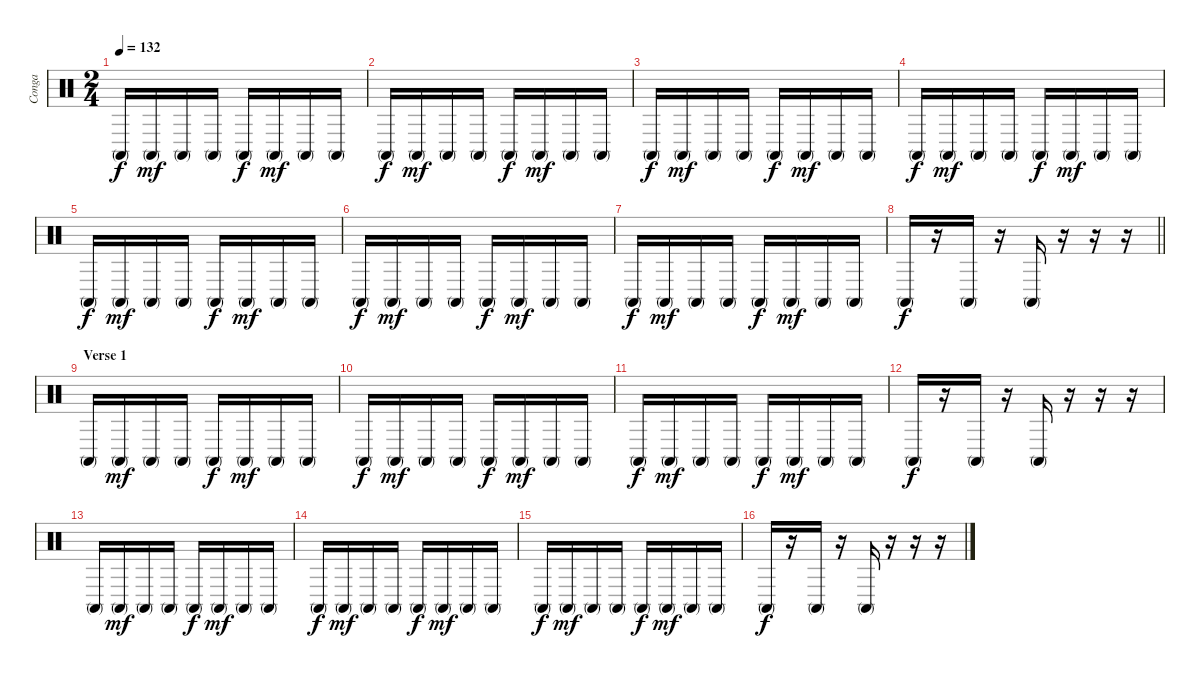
\track ("Conga" "Conga") {instrument percussion}
\staff {score}
\articulation defaults
\ts (2 4)
\tempo 132
\clef neutral
\ks c "Conga high (mute)".16{dy f} "Conga high (mute)".16{dy mf} "Conga high (mute)".16 "Conga high (mute)".16 "Conga high (mute)".16{dy f} "Conga high (mute)".16{dy mf} "Conga high (mute)".16 "Conga high (mute)".16
|
"Conga high (mute)".16{dy f} "Conga high (mute)".16{dy mf} "Conga high (mute)".16 "Conga high (mute)".16 "Conga high (mute)".16{dy f} "Conga high (mute)".16{dy mf} "Conga high (mute)".16 "Conga high (mute)".16 |
"Conga high (mute)".16{dy f} "Conga high (mute)".16{dy mf} "Conga high (mute)".16 "Conga high (mute)".16 "Conga high (mute)".16{dy f} "Conga high (mute)".16{dy mf} "Conga high (mute)".16 "Conga high (mute)".16 |
"Conga high (mute)".16{dy f} "Conga high (mute)".16{dy mf} "Conga high (mute)".16 "Conga high (mute)".16 "Conga high (mute)".16{dy f} "Conga high (mute)".16{dy mf} "Conga high (mute)".16 "Conga high (mute)".16 |
"Conga high (mute)".16{dy f} "Conga high (mute)".16{dy mf} "Conga high (mute)".16 "Conga high (mute)".16 "Conga high (mute)".16{dy f} "Conga high (mute)".16{dy mf} "Conga high (mute)".16 "Conga high (mute)".16 |
"Conga high (mute)".16{dy f} "Conga high (mute)".16{dy mf} "Conga high (mute)".16 "Conga high (mute)".16 "Conga high (mute)".16{dy f} "Conga high (mute)".16{dy mf} "Conga high (mute)".16 "Conga high (mute)".16 |
"Conga high (mute)".16{dy f} "Conga high (mute)".16{dy mf} "Conga high (mute)".16 "Conga high (mute)".16 "Conga high (mute)".16{dy f} "Conga high (mute)".16{dy mf} "Conga high (mute)".16 "Conga high (mute)".16 |
\barLineRight lightlight "Conga high (mute)".16{dy f}
r.16 "Conga high (mute)".16 r.16 "Conga high (mute)".16 r.16 r.16 r.16 |
\section ("" "Verse 1")
"Conga high (mute)".16 "Conga high (mute)".16{dy mf} "Conga high (mute)".16 "Conga high (mute)".16 "Conga high (mute)".16{dy f} "Conga high (mute)".16{dy mf} "Conga high (mute)".16 "Conga high (mute)".16 |
"Conga high (mute)".16{dy f} "Conga high (mute)".16{dy mf} "Conga high (mute)".16 "Conga high (mute)".16 "Conga high (mute)".16{dy f} "Conga high (mute)".16{dy mf} "Conga high (mute)".16 "Conga high (mute)".16 |
"Conga high (mute)".16{dy f} "Conga high (mute)".16{dy mf} "Conga high (mute)".16 "Conga high (mute)".16 "Conga high (mute)".16{dy f} "Conga high (mute)".16{dy mf} "Conga high (mute)".16 "Conga high (mute)".16 |
"Conga high (mute)".16{dy f} r.16 "Conga high (mute)".16 r.16 "Conga high (mute)".16 r.16 r.16 r.16 |
"Conga high (mute)".16 "Conga high (mute)".16{dy mf} "Conga high (mute)".16 "Conga high (mute)".16 "Conga high (mute)".16{dy f} "Conga high (mute)".16{dy mf} "Conga high (mute)".16 "Conga high (mute)".16 |
"Conga high (mute)".16{dy f} "Conga high (mute)".16{dy mf} "Conga high (mute)".16 "Conga high (mute)".16 "Conga high (mute)".16{dy f} "Conga high (mute)".16{dy mf} "Conga high (mute)".16 "Conga high (mute)".16 |
"Conga high (mute)".16{dy f} "Conga high (mute)".16{dy mf} "Conga high (mute)".16 "Conga high (mute)".16 "Conga high (mute)".16{dy f} "Conga high (mute)".16{dy mf} "Conga high (mute)".16 "Conga high (mute)".16 |
"Conga high (mute)".16{dy f} r.16 "Conga high (mute)".16 r.16 "Conga high (mute)".16 r.16 r.16 r.16
